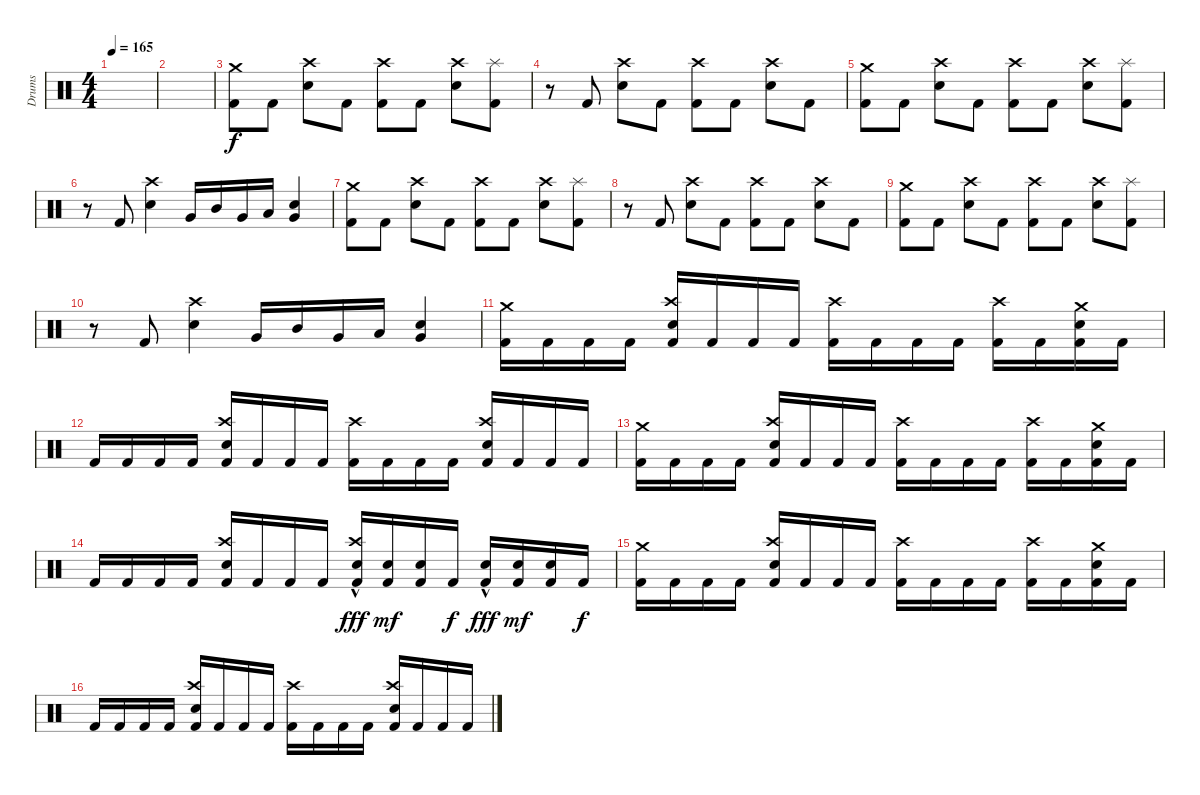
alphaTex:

\track ("Drums" "Drums") {instrument percussion}
\staff {score}
\articulation defaults
\ts (4 4)
\tempo 165
\clef neutral
\ks c
|
|
("Crash medium (hit)" "Kick (hit) 2").8 "Kick (hit) 2".8 ("Crash high (hit)" "Electric Snare (hit)").8 "Kick (hit) 2".8 ("Crash high (hit)" "Kick (hit) 2").8 "Kick (hit) 2".8 ("Crash high (hit)" "Electric Snare (hit)").8 ("Splash (hit)" "Kick (hit) 2").8 |
r.8 "Kick (hit) 2".8 ("Crash high (hit)" "Electric Snare (hit)").8 "Kick (hit) 2".8 ("Crash high (hit)" "Kick (hit) 2").8 "Kick (hit) 2".8 ("Crash high (hit)" "Electric Snare (hit)").8 "Kick (hit) 2".8 |
("Crash medium (hit)" "Kick (hit) 2").8 "Kick (hit) 2".8 ("Crash high (hit)" "Electric Snare (hit)").8 "Kick (hit) 2".8 ("Crash high (hit)" "Kick (hit) 2").8 "Kick (hit) 2".8 ("Crash high (hit)" "Electric Snare (hit)").8 ("Splash (hit)" "Kick (hit) 2").8 |
r.8 "Kick (hit) 2".8 ("Crash high (hit)" "Electric Snare (hit)").4 "Very Low Tom (hit)".16 "Mid Tom (hit)".16 "Very Low Tom (hit)".16 "Low Floor Tom (hit)".16 ("Very Low Tom (hit)" "Electric Snare (hit)").4 |
("Crash medium (hit)" "Kick (hit) 2").8 "Kick (hit) 2".8 ("Crash high (hit)" "Electric Snare (hit)").8 "Kick (hit) 2".8 ("Crash high (hit)" "Kick (hit) 2").8 "Kick (hit) 2".8 ("Crash high (hit)" "Electric Snare (hit)").8 ("Splash (hit)" "Kick (hit) 2").8 |
r.8 "Kick (hit) 2".8 ("Crash high (hit)" "Electric Snare (hit)").8 "Kick (hit) 2".8 ("Crash high (hit)" "Kick (hit) 2").8 "Kick (hit) 2".8 ("Crash high (hit)" "Electric Snare (hit)").8 "Kick (hit) 2".8 |
("Crash medium (hit)" "Kick (hit) 2").8 "Kick (hit) 2".8 ("Crash high (hit)" "Electric Snare (hit)").8 "Kick (hit) 2".8 ("Crash high (hit)" "Kick (hit) 2").8 "Kick (hit) 2".8 ("Crash high (hit)" "Electric Snare (hit)").8 ("Splash (hit)" "Kick (hit) 2").8 |
r.8 "Kick (hit) 2".8 ("Crash high (hit)" "Electric Snare (hit)").4 "Very Low Tom (hit)".16 "Mid Tom (hit)".16 "Very Low Tom (hit)".16 "Low Floor Tom (hit)".16 ("Very Low Tom (hit)" "Electric Snare (hit)").4 |
("Crash medium (hit)" "Kick (hit) 2").16 "Kick (hit) 2".16 "Kick (hit) 2".16 "Kick (hit) 2".16 ("Crash high (hit)" "Electric Snare (hit)" "Kick (hit) 2").16 "Kick (hit) 2".16 "Kick (hit) 2".16 "Kick (hit) 2".16 ("Crash high (hit)" "Kick (hit) 2").16 "Kick (hit) 2".16 "Kick (hit) 2".16 "Kick (hit) 2".16 ("Crash high (hit)" "Kick (hit) 2").16 "Kick (hit) 2".16 ("Crash medium (hit)" "Electric Snare (hit)" "Kick (hit) 2").16 "Kick (hit) 2".16 |
"Kick (hit) 2".16 "Kick (hit) 2".16 "Kick (hit) 2".16 "Kick (hit) 2".16 ("Crash high (hit)" "Electric Snare (hit)" "Kick (hit) 2").16 "Kick (hit) 2".16 "Kick (hit) 2".16 "Kick (hit) 2".16 ("Crash high (hit)" "Kick (hit) 2").16 "Kick (hit) 2".16 "Kick (hit) 2".16 "Kick (hit) 2".16 ("Crash high (hit)" "Electric Snare (hit)" "Kick (hit) 2").16 "Kick (hit) 2".16 "Kick (hit) 2".16 "Kick (hit) 2".16 |
("Crash medium (hit)" "Kick (hit) 2").16 "Kick (hit) 2".16 "Kick (hit) 2".16 "Kick (hit) 2".16 ("Crash high (hit)" "Electric Snare (hit)" "Kick (hit) 2").16 "Kick (hit) 2".16 "Kick (hit) 2".16 "Kick (hit) 2".16 ("Crash high (hit)" "Kick (hit) 2").16 "Kick (hit) 2".16 "Kick (hit) 2".16 "Kick (hit) 2".16 ("Crash high (hit)" "Kick (hit) 2").16 "Kick (hit) 2".16 ("Crash medium (hit)" "Electric Snare (hit)" "Kick (hit) 2").16 "Kick (hit) 2".16 |
"Kick (hit) 2".16 "Kick (hit) 2".16 "Kick (hit) 2".16 "Kick (hit) 2".16 ("Crash high (hit)" "Electric Snare (hit)" "Kick (hit) 2").16 "Kick (hit) 2".16 "Kick (hit) 2".16 "Kick (hit) 2".16 ("Crash high (hit)" "Electric Snare (hit)"{hac} "Kick (hit) 2").16{dy fff} ("Electric Snare (hit)" "Kick (hit) 2").16{dy mf} ("Electric Snare (hit)" "Kick (hit) 2").16 "Kick (hit) 2".16{dy f} ("Electric Snare (hit)"{hac} "Kick (hit) 2").16{dy fff} ("Electric Snare (hit)" "Kick (hit) 2").16{dy mf} ("Electric Snare (hit)" "Kick (hit) 2").16 "Kick (hit) 2".16{dy f} |
("Crash medium (hit)" "Kick (hit) 2").16 "Kick (hit) 2".16 "Kick (hit) 2".16 "Kick (hit) 2".16 ("Crash high (hit)" "Electric Snare (hit)" "Kick (hit) 2").16 "Kick (hit) 2".16 "Kick (hit) 2".16 "Kick (hit) 2".16 ("Crash high (hit)" "Kick (hit) 2").16 "Kick (hit) 2".16 "Kick (hit) 2".16 "Kick (hit) 2".16 ("Crash high (hit)" "Kick (hit) 2").16 "Kick (hit) 2".16 ("Crash medium (hit)" "Electric Snare (hit)" "Kick (hit) 2").16 "Kick (hit) 2".16 |
"Kick (hit) 2".16 "Kick (hit) 2".16 "Kick (hit) 2".16 "Kick (hit) 2".16 ("Crash high (hit)" "Electric Snare (hit)" "Kick (hit) 2").16 "Kick (hit) 2".16 "Kick (hit) 2".16 "Kick (hit) 2".16 ("Crash high (hit)" "Kick (hit) 2").16 "Kick (hit) 2".16 "Kick (hit) 2".16 "Kick (hit) 2".16 ("Crash high (hit)" "Electric Snare (hit)" "Kick (hit) 2").16 "Kick (hit) 2".16 "Kick (hit) 2".16 "Kick (hit) 2".16
